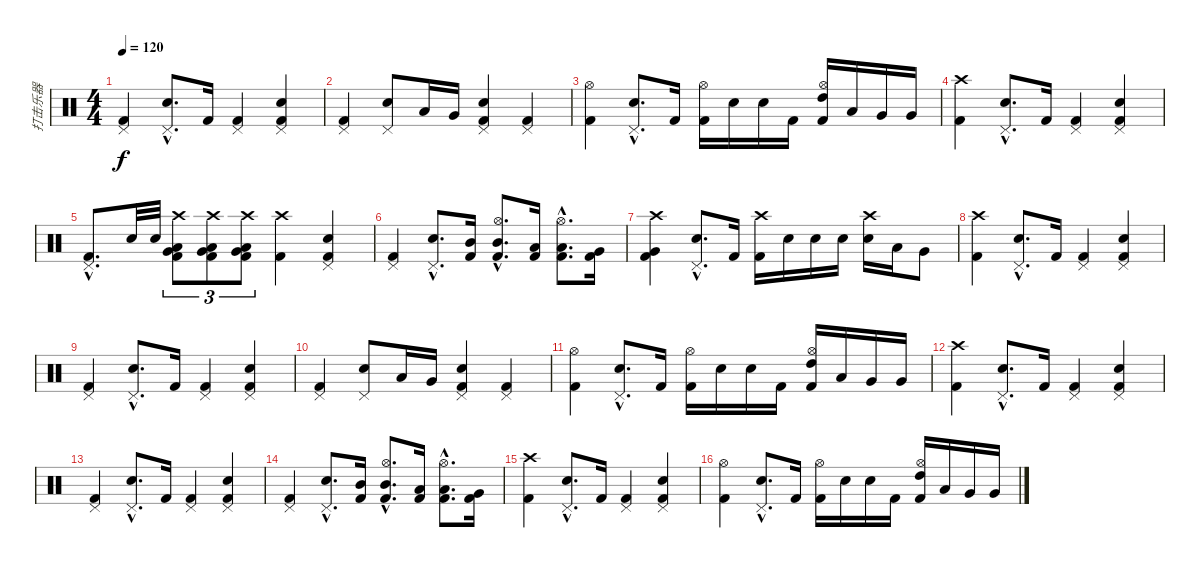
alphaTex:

\track ("打击乐器" "打击乐器") {instrument percussion}
\staff {score}
\articulation defaults
\ts (4 4)
\tempo 120
\clef neutral
\ks c
("Pedal Hi-Hat (hit)" "Kick (hit) 2").4{dy f} ("Pedal Hi-Hat (hit)"{hac} "Snare (hit) 2"{hac}).8{d} "Kick (hit) 2".16 ("Pedal Hi-Hat (hit)" "Kick (hit) 2").4 ("Pedal Hi-Hat (hit)" "Snare (hit) 2" "Kick (hit) 2").4 |
("Pedal Hi-Hat (hit)" "Kick (hit) 2").4 ("Pedal Hi-Hat (hit)" "Snare (hit) 2").8 "Low Tom (hit)".16 "Very Low Tom (hit)".16 ("Pedal Hi-Hat (hit)" "Snare (hit) 2" "Kick (hit) 2").4 ("Pedal Hi-Hat (hit)" "Kick (hit) 2").4 |
("Hi-Hat (open)" "Kick (hit) 2").4 ("Pedal Hi-Hat (hit)"{hac} "Snare (hit) 2"{hac}).8{d} "Kick (hit) 2".16 ("Hi-Hat (open)" "Kick (hit) 2").16 "Snare (hit) 2".16 "Snare (hit) 2".16 "Kick (hit) 2".16 ("Hi-Hat (open)" "High Tom (hit)" "Kick (hit) 2").16 "Low Tom (hit)".16 "Very Low Tom (hit)".16 "Very Low Tom (hit)".16 |
("Crash high (hit)" "Kick (hit) 2").4 ("Pedal Hi-Hat (hit)"{hac} "Snare (hit) 2"{hac}).8{d} "Kick (hit) 2".16 ("Pedal Hi-Hat (hit)" "Kick (hit) 2").4 ("Pedal Hi-Hat (hit)" "Snare (hit) 2" "Kick (hit) 2").4 |
("Pedal Hi-Hat (hit)"{hac} "Kick (hit) 2"{hac}).8{d} "Snare (hit) 2".32 "Snare (hit) 2".32 ("Crash high (hit)" "Very Low Tom (hit)" "Low Tom (hit)" "Kick (hit) 2").8{tu (3 2)} ("Crash high (hit)" "Very Low Tom (hit)" "Low Tom (hit)" "Kick (hit) 2").8{tu (3 2)} ("Crash high (hit)" "Very Low Tom (hit)" "Low Tom (hit)" "Kick (hit) 2").8{tu (3 2)} ("Crash high (hit)" "Kick (hit) 2").4 ("Pedal Hi-Hat (hit)" "Snare (hit) 2" "Kick (hit) 2").4 |
("Pedal Hi-Hat (hit)" "Kick (hit) 2").4 ("Pedal Hi-Hat (hit)"{hac} "Snare (hit) 2"{hac}).8{d} ("Mid Tom (hit)" "Kick (hit) 2").16 ("Hi-Hat (open)"{hac} "Mid Tom (hit)"{hac} "Kick (hit) 2"{hac}).8{d} ("Low Tom (hit)" "Kick (hit) 2").16 ("Hi-Hat (open)"{hac} "Low Tom (hit)"{hac} "Kick (hit) 2"{hac}).8{d} ("Very Low Tom (hit)" "Kick (hit) 2").16 |
("Crash high (hit)" "Very Low Tom (hit)" "Kick (hit) 2").4 ("Pedal Hi-Hat (hit)"{hac} "Snare (hit) 2"{hac}).8{d} "Kick (hit) 2".16 ("Crash high (hit)" "Kick (hit) 2").16 "Snare (hit) 2".16 "Snare (hit) 2".16 "Snare (hit) 2".16 ("Crash high (hit)" "Snare (hit) 2").16 "Low Tom (hit)".16 "Very Low Tom (hit)".8 |
("Crash high (hit)" "Kick (hit) 2").4 ("Pedal Hi-Hat (hit)"{hac} "Snare (hit) 2"{hac}).8{d} "Kick (hit) 2".16 ("Pedal Hi-Hat (hit)" "Kick (hit) 2").4 ("Pedal Hi-Hat (hit)" "Snare (hit) 2" "Kick (hit) 2").4 |
("Pedal Hi-Hat (hit)" "Kick (hit) 2").4 ("Pedal Hi-Hat (hit)"{hac} "Snare (hit) 2"{hac}).8{d} "Kick (hit) 2".16 ("Pedal Hi-Hat (hit)" "Kick (hit) 2").4 ("Pedal Hi-Hat (hit)" "Snare (hit) 2" "Kick (hit) 2").4 |
("Pedal Hi-Hat (hit)" "Kick (hit) 2").4 ("Pedal Hi-Hat (hit)" "Snare (hit) 2").8 "Low Tom (hit)".16 "Very Low Tom (hit)".16 ("Pedal Hi-Hat (hit)" "Snare (hit) 2" "Kick (hit) 2").4 ("Pedal Hi-Hat (hit)" "Kick (hit) 2").4 |
("Hi-Hat (open)" "Kick (hit) 2").4 ("Pedal Hi-Hat (hit)"{hac} "Snare (hit) 2"{hac}).8{d} "Kick (hit) 2".16 ("Hi-Hat (open)" "Kick (hit) 2").16 "Snare (hit) 2".16 "Snare (hit) 2".16 "Kick (hit) 2".16 ("Hi-Hat (open)" "High Tom (hit)" "Kick (hit) 2").16 "Low Tom (hit)".16 "Very Low Tom (hit)".16 "Very Low Tom (hit)".16 |
("Crash high (hit)" "Kick (hit) 2").4 ("Pedal Hi-Hat (hit)"{hac} "Snare (hit) 2"{hac}).8{d} "Kick (hit) 2".16 ("Pedal Hi-Hat (hit)" "Kick (hit) 2").4 ("Pedal Hi-Hat (hit)" "Snare (hit) 2" "Kick (hit) 2").4 |
("Pedal Hi-Hat (hit)" "Kick (hit) 2").4 ("Pedal Hi-Hat (hit)"{hac} "Snare (hit) 2"{hac}).8{d} "Kick (hit) 2".16 ("Pedal Hi-Hat (hit)" "Kick (hit) 2").4 ("Pedal Hi-Hat (hit)" "Snare (hit) 2" "Kick (hit) 2").4 |
("Pedal Hi-Hat (hit)" "Kick (hit) 2").4 ("Pedal Hi-Hat (hit)"{hac} "Snare (hit) 2"{hac}).8{d} ("Mid Tom (hit)" "Kick (hit) 2").16 ("Hi-Hat (open)"{hac} "Mid Tom (hit)"{hac} "Kick (hit) 2"{hac}).8{d} ("Low Tom (hit)" "Kick (hit) 2").16 ("Hi-Hat (open)"{hac} "Low Tom (hit)"{hac} "Kick (hit) 2"{hac}).8{d} ("Very Low Tom (hit)" "Kick (hit) 2").16 |
("Crash high (hit)" "Kick (hit) 2").4 ("Pedal Hi-Hat (hit)"{hac} "Snare (hit) 2"{hac}).8{d} "Kick (hit) 2".16 ("Pedal Hi-Hat (hit)" "Kick (hit) 2").4 ("Pedal Hi-Hat (hit)" "Snare (hit) 2" "Kick (hit) 2").4 |
("Hi-Hat (open)" "Kick (hit) 2").4 ("Pedal Hi-Hat (hit)"{hac} "Snare (hit) 2"{hac}).8{d} "Kick (hit) 2".16 ("Hi-Hat (open)" "Kick (hit) 2").16 "Snare (hit) 2".16 "Snare (hit) 2".16 "Kick (hit) 2".16 ("Hi-Hat (open)" "High Tom (hit)" "Kick (hit) 2").16 "Low Tom (hit)".16 "Very Low Tom (hit)".16 "Very Low Tom (hit)".16
